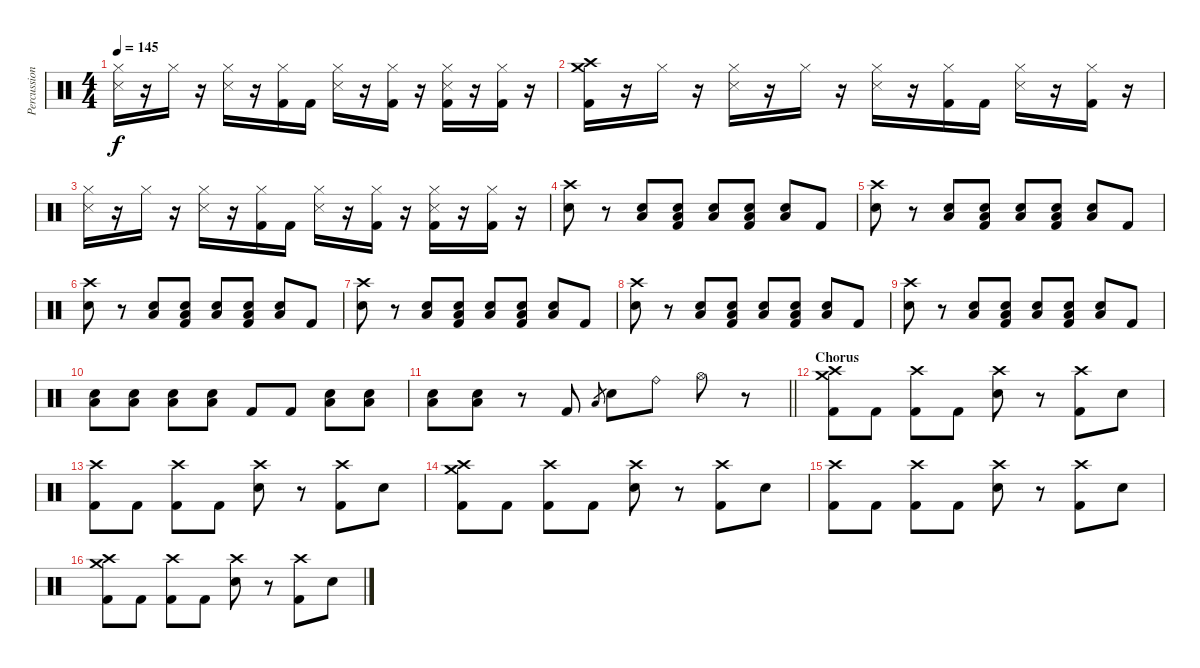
\track ("Percussion" "Percussion") {instrument percussion}
\staff {score}
\articulation defaults
\ts (4 4)
\tempo 145
\clef neutral
\ks c
("Hi-Hat (closed)" "Metronome (hit)").16{dy f} r.16 "Hi-Hat (closed)".16 r.16 ("Hi-Hat (closed)" "Metronome (hit)").16 r.16 ("Hi-Hat (closed)" "Kick (hit) 2").16 "Kick (hit) 2".16 ("Hi-Hat (closed)" "Metronome (hit)").16 r.16 ("Hi-Hat (closed)" "Kick (hit) 2").16 r.16 ("Hi-Hat (closed)" "Metronome (hit)" "Kick (hit) 2").16 r.16 ("Hi-Hat (closed)" "Kick (hit) 2").16 r.16 |
("Crash medium (hit)" "Crash high (hit)" "Kick (hit) 2").16 r.16 "Hi-Hat (closed)".16 r.16 ("Hi-Hat (closed)" "Metronome (hit)").16 r.16 "Hi-Hat (closed)".16 r.16 ("Hi-Hat (closed)" "Metronome (hit)").16 r.16 ("Hi-Hat (closed)" "Kick (hit) 2").16 "Kick (hit) 2".16 ("Hi-Hat (closed)" "Metronome (hit)").16 r.16 ("Hi-Hat (closed)" "Kick (hit) 2").16 r.16 |
("Hi-Hat (closed)" "Metronome (hit)").16 r.16 "Hi-Hat (closed)".16 r.16 ("Hi-Hat (closed)" "Metronome (hit)").16 r.16 ("Hi-Hat (closed)" "Kick (hit) 2").16 "Kick (hit) 2".16 ("Hi-Hat (closed)" "Metronome (hit)").16 r.16 ("Hi-Hat (closed)" "Kick (hit) 2").16 r.16 ("Hi-Hat (closed)" "Metronome (hit)" "Kick (hit) 2").16 r.16 ("Hi-Hat (closed)" "Kick (hit) 2").16 r.16 |
("Crash high (hit)" "Electric Snare (hit)").8 r.8 ("Electric Snare (hit)" "Low Floor Tom (hit)").8 ("Electric Snare (hit)" "Low Floor Tom (hit)" "Kick (hit) 2").8 ("Electric Snare (hit)" "Low Floor Tom (hit)").8 ("Electric Snare (hit)" "Low Floor Tom (hit)" "Kick (hit) 2").8 ("Electric Snare (hit)" "Low Floor Tom (hit)").8 "Kick (hit) 2".8 |
("Crash high (hit)" "Electric Snare (hit)").8 r.8 ("Electric Snare (hit)" "Low Floor Tom (hit)").8 ("Electric Snare (hit)" "Low Floor Tom (hit)" "Kick (hit) 2").8 ("Electric Snare (hit)" "Low Floor Tom (hit)").8 ("Electric Snare (hit)" "Low Floor Tom (hit)" "Kick (hit) 2").8 ("Electric Snare (hit)" "Low Floor Tom (hit)").8 "Kick (hit) 2".8 |
("Crash high (hit)" "Electric Snare (hit)").8 r.8 ("Electric Snare (hit)" "Low Floor Tom (hit)").8 ("Electric Snare (hit)" "Low Floor Tom (hit)" "Kick (hit) 2").8 ("Electric Snare (hit)" "Low Floor Tom (hit)").8 ("Electric Snare (hit)" "Low Floor Tom (hit)" "Kick (hit) 2").8 ("Electric Snare (hit)" "Low Floor Tom (hit)").8 "Kick (hit) 2".8 |
("Crash high (hit)" "Electric Snare (hit)").8 r.8 ("Electric Snare (hit)" "Low Floor Tom (hit)").8 ("Electric Snare (hit)" "Low Floor Tom (hit)" "Kick (hit) 2").8 ("Electric Snare (hit)" "Low Floor Tom (hit)").8 ("Electric Snare (hit)" "Low Floor Tom (hit)" "Kick (hit) 2").8 ("Electric Snare (hit)" "Low Floor Tom (hit)").8 "Kick (hit) 2".8 |
("Crash high (hit)" "Electric Snare (hit)").8 r.8 ("Electric Snare (hit)" "Low Floor Tom (hit)").8 ("Electric Snare (hit)" "Low Floor Tom (hit)" "Kick (hit) 2").8 ("Electric Snare (hit)" "Low Floor Tom (hit)").8 ("Electric Snare (hit)" "Low Floor Tom (hit)" "Kick (hit) 2").8 ("Electric Snare (hit)" "Low Floor Tom (hit)").8 "Kick (hit) 2".8 |
("Crash high (hit)" "Electric Snare (hit)").8 r.8 ("Electric Snare (hit)" "Low Floor Tom (hit)").8 ("Electric Snare (hit)" "Low Floor Tom (hit)" "Kick (hit) 2").8 ("Electric Snare (hit)" "Low Floor Tom (hit)").8 ("Electric Snare (hit)" "Low Floor Tom (hit)" "Kick (hit) 2").8 ("Electric Snare (hit)" "Low Floor Tom (hit)").8 "Kick (hit) 2".8 |
("Electric Snare (hit)" "Low Floor Tom (hit)").8 ("Electric Snare (hit)" "Low Floor Tom (hit)").8 ("Electric Snare (hit)" "Low Floor Tom (hit)").8 ("Electric Snare (hit)" "Low Floor Tom (hit)").8 "Kick (hit) 2".8 "Kick (hit) 2".8 ("Electric Snare (hit)" "Low Floor Tom (hit)").8 ("Electric Snare (hit)" "Low Floor Tom (hit)").8 |
\barLineRight lightlight
("Electric Snare (hit)" "Low Floor Tom (hit)").8 ("Electric Snare (hit)" "Low Floor Tom (hit)").8 r.8 "Kick (hit) 2".8 "Low Floor Tom (hit)".8{gr} "Electric Snare (hit)".8 "Ride (bell)".8 "Hi-Hat (open)".8 r.8 |
\section ("" "Chorus")
("Crash medium (hit)" "Crash high (hit)" "Kick (hit) 2").8 "Kick (hit) 2".8 ("Crash high (hit)" "Kick (hit) 2").8 "Kick (hit) 2".8 ("Crash high (hit)" "Electric Snare (hit)").8 r.8 ("Crash high (hit)" "Kick (hit) 2").8 "Electric Snare (hit)".8 |
("Crash high (hit)" "Kick (hit) 2").8 "Kick (hit) 2".8 ("Crash high (hit)" "Kick (hit) 2").8 "Kick (hit) 2".8 ("Crash high (hit)" "Electric Snare (hit)").8 r.8 ("Crash high (hit)" "Kick (hit) 2").8 "Electric Snare (hit)".8 |
("Crash medium (hit)" "Crash high (hit)" "Kick (hit) 2").8 "Kick (hit) 2".8 ("Crash high (hit)" "Kick (hit) 2").8 "Kick (hit) 2".8 ("Crash high (hit)" "Electric Snare (hit)").8 r.8 ("Crash high (hit)" "Kick (hit) 2").8 "Electric Snare (hit)".8 |
("Crash high (hit)" "Kick (hit) 2").8 "Kick (hit) 2".8 ("Crash high (hit)" "Kick (hit) 2").8 "Kick (hit) 2".8 ("Crash high (hit)" "Electric Snare (hit)").8 r.8 ("Crash high (hit)" "Kick (hit) 2").8 "Electric Snare (hit)".8 |
("Crash medium (hit)" "Crash high (hit)" "Kick (hit) 2").8 "Kick (hit) 2".8 ("Crash high (hit)" "Kick (hit) 2").8 "Kick (hit) 2".8 ("Crash high (hit)" "Electric Snare (hit)").8 r.8 ("Crash high (hit)" "Kick (hit) 2").8 "Electric Snare (hit)".8
